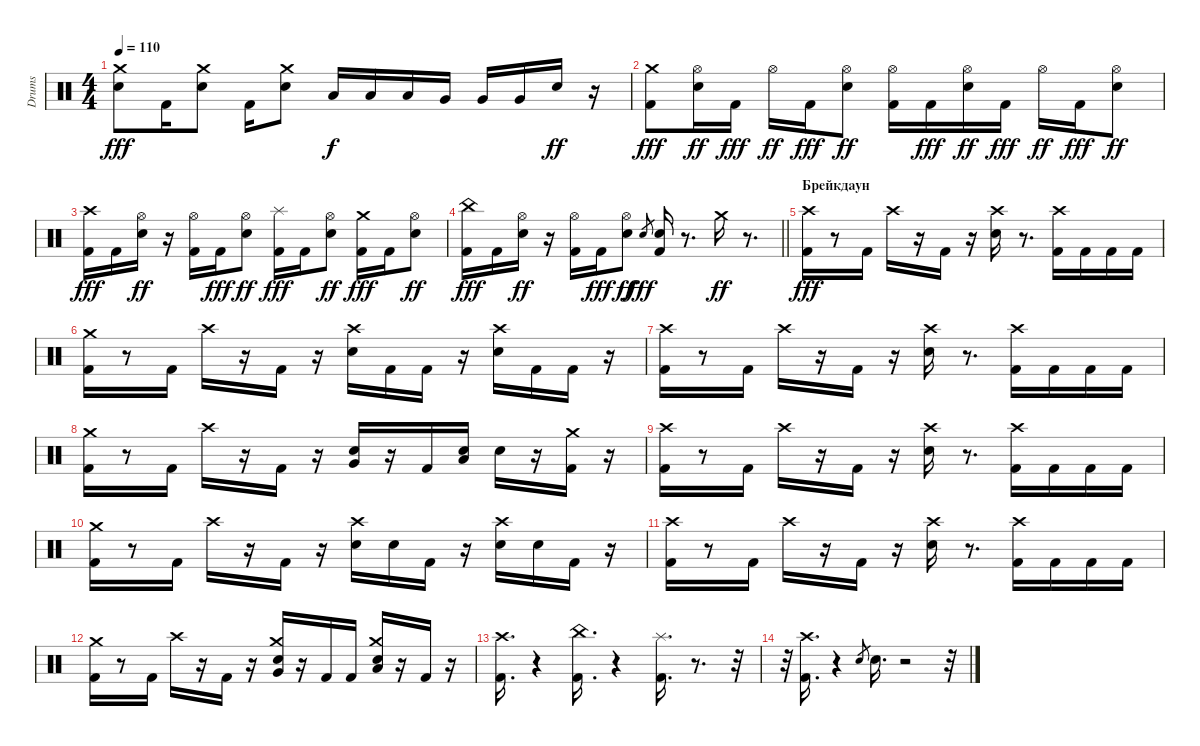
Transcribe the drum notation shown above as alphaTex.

\track ("Drums" "Drums") {instrument percussion}
\staff {score}
\articulation defaults
\ts (4 4)
\tempo 110
\clef neutral
\ks c
("Electric Snare (hit)" "Crash medium (hit)").8{dy fff} "Kick (hit) 2".16 ("Electric Snare (hit)" "Crash medium (hit)").8 "Kick (hit) 2".16 ("Electric Snare (hit)" "Crash medium (hit)").8 "Low Tom (hit)".16{dy f} "Low Tom (hit)".16 "Low Tom (hit)".16 "Very Low Tom (hit)".16 "Very Low Tom (hit)".16 "Very Low Tom (hit)".16 "Electric Snare (hit)".16{dy ff} r.16 |
("Kick (hit) 2" "Crash medium (hit)").8{dy fff} ("Electric Snare (hit)" "Hi-Hat (open)").16{dy ff} "Kick (hit) 2".16{dy fff} "Hi-Hat (open)".16{dy ff} "Kick (hit) 2".16{dy fff} ("Electric Snare (hit)" "Hi-Hat (open)").8{dy ff} ("Kick (hit) 2" "Hi-Hat (open)").16 "Kick (hit) 2".16{dy fff} ("Electric Snare (hit)" "Hi-Hat (open)").16{dy ff} "Kick (hit) 2".16{dy fff} "Hi-Hat (open)".16{dy ff} "Kick (hit) 2".16{dy fff} ("Electric Snare (hit)" "Hi-Hat (open)").8{dy ff} |
("Kick (hit) 2" "Crash high (hit)").16{dy fff} "Kick (hit) 2".16 ("Electric Snare (hit)" "Hi-Hat (open)").16{dy ff} r.16 ("Kick (hit) 2" "Hi-Hat (open)").16 "Kick (hit) 2".16{dy fff} ("Electric Snare (hit)" "Hi-Hat (open)").8{dy ff} ("Kick (hit) 2" "Splash (hit)").16{dy fff} "Kick (hit) 2".16 ("Electric Snare (hit)" "Hi-Hat (open)").8{dy ff} ("Kick (hit) 2" "Crash medium (hit)").16{dy fff} "Kick (hit) 2".16 ("Electric Snare (hit)" "Hi-Hat (open)").8{dy ff} |
\barLineRight lightlight
("Kick (hit) 2" "China (hit)").16{dy fff} "Kick (hit) 2".16 ("Electric Snare (hit)" "Hi-Hat (open)").16{dy ff} r.16 ("Kick (hit) 2" "Hi-Hat (open)").16 "Kick (hit) 2".16{dy fff} ("Electric Snare (hit)" "Hi-Hat (open)").8{dy ff} "Electric Snare (hit)".8{gr dy fff} ("Kick (hit) 2" "Electric Snare (hit)").16 r.8{d} "Crash medium (hit)".16{dy ff} r.8{d} |
\section ("" "Брейкдаун")
("Kick (hit) 2" "Crash high (hit)").16{dy fff} r.8 "Kick (hit) 2".16 "Crash high (hit)".16 r.16 "Kick (hit) 2".16 r.16 ("Electric Snare (hit)" "Crash high (hit)").16 r.8{d} ("Kick (hit) 2" "Crash high (hit)").16 "Kick (hit) 2".16 "Kick (hit) 2".16 "Kick (hit) 2".16 |
("Kick (hit) 2" "Crash medium (hit)").16 r.8 "Kick (hit) 2".16 "Crash high (hit)".16 r.16 "Kick (hit) 2".16 r.16 ("Electric Snare (hit)" "Crash high (hit)").16 "Kick (hit) 2".16 "Kick (hit) 2".16 r.16 ("Electric Snare (hit)" "Crash high (hit)").16 "Kick (hit) 2".16 "Kick (hit) 2".16 r.16 |
("Kick (hit) 2" "Crash high (hit)").16 r.8 "Kick (hit) 2".16 "Crash high (hit)".16 r.16 "Kick (hit) 2".16 r.16 ("Electric Snare (hit)" "Crash high (hit)").16 r.8{d} ("Kick (hit) 2" "Crash high (hit)").16 "Kick (hit) 2".16 "Kick (hit) 2".16 "Kick (hit) 2".16 |
("Kick (hit) 2" "Crash medium (hit)").16 r.8 "Kick (hit) 2".16 "Crash high (hit)".16 r.16 "Kick (hit) 2".16 r.16 ("Electric Snare (hit)" "Very Low Tom (hit)").16 r.16 "Kick (hit) 2".16 ("Electric Snare (hit)" "Low Floor Tom (hit)").16 "Electric Snare (hit)".16 r.16 ("Kick (hit) 2" "Crash medium (hit)").16 r.16 |
("Kick (hit) 2" "Crash high (hit)").16 r.8 "Kick (hit) 2".16 "Crash high (hit)".16 r.16 "Kick (hit) 2".16 r.16 ("Electric Snare (hit)" "Crash high (hit)").16 r.8{d} ("Kick (hit) 2" "Crash high (hit)").16 "Kick (hit) 2".16 "Kick (hit) 2".16 "Kick (hit) 2".16 |
("Kick (hit) 2" "Crash medium (hit)").16 r.8 "Kick (hit) 2".16 "Crash high (hit)".16 r.16 "Kick (hit) 2".16 r.16 ("Electric Snare (hit)" "Crash high (hit)").16 "Electric Snare (hit)".16 "Kick (hit) 2".16 r.16 ("Electric Snare (hit)" "Crash high (hit)").16 "Electric Snare (hit)".16 "Kick (hit) 2".16 r.16 |
("Kick (hit) 2" "Crash high (hit)").16 r.8 "Kick (hit) 2".16 "Crash high (hit)".16 r.16 "Kick (hit) 2".16 r.16 ("Electric Snare (hit)" "Crash high (hit)").16 r.8{d} ("Kick (hit) 2" "Crash high (hit)").16 "Kick (hit) 2".16 "Kick (hit) 2".16 "Kick (hit) 2".16 |
("Kick (hit) 2" "Crash medium (hit)").16 r.8 "Kick (hit) 2".16 "Crash high (hit)".16 r.16 "Kick (hit) 2".16 r.16 ("Electric Snare (hit)" "Very Low Tom (hit)" "Crash medium (hit)").16 r.16 "Kick (hit) 2".16 "Kick (hit) 2".16 ("Electric Snare (hit)" "Low Floor Tom (hit)" "Crash medium (hit)").16 r.16 "Kick (hit) 2".16 r.16 |
("Kick (hit) 2" "Crash high (hit)").16{d} r.4 ("Kick (hit) 2" "China (hit)").16{d} r.4 ("Kick (hit) 2" "Splash (hit)").16{d} r.8{d} r.32 |
r.32 ("Kick (hit) 2" "Crash high (hit)").16{d} r.4 "Electric Snare (hit)".8{gr} "Electric Snare (hit)".16{d} r.2 r.32
